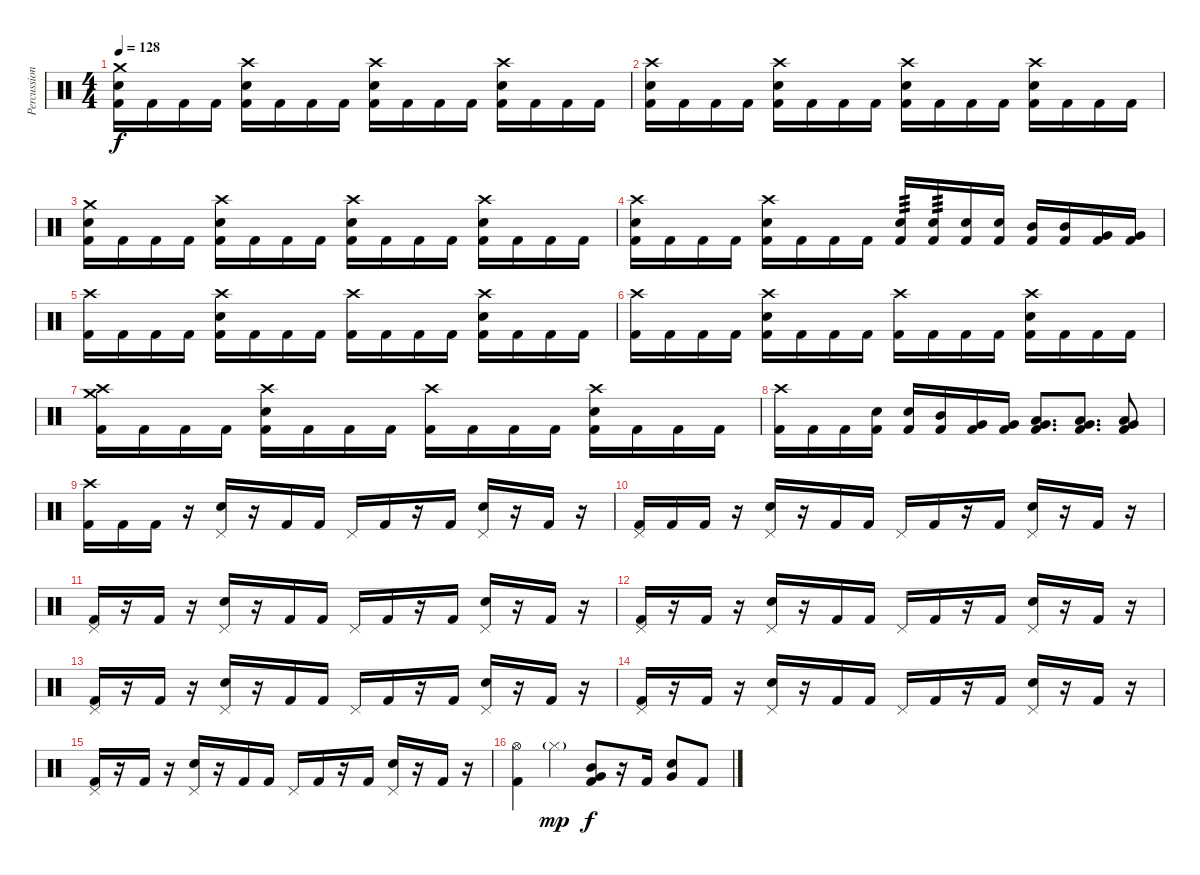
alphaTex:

\track ("Percussion" "Percussion") {instrument percussion}
\staff {score}
\articulation defaults
\ts (4 4)
\tempo 128
\clef neutral
\ks c
("Kick (hit) 2" "Electric Snare (hit)" "Crash medium (hit)").16{dy f} "Kick (hit) 2".16 "Kick (hit) 2".16 "Kick (hit) 2".16 ("Kick (hit) 2" "Electric Snare (hit)" "Crash high (hit)").16 "Kick (hit) 2".16 "Kick (hit) 2".16 "Kick (hit) 2".16 ("Kick (hit) 2" "Electric Snare (hit)" "Crash high (hit)").16 "Kick (hit) 2".16 "Kick (hit) 2".16 "Kick (hit) 2".16 ("Kick (hit) 2" "Electric Snare (hit)" "Crash high (hit)").16 "Kick (hit) 2".16 "Kick (hit) 2".16 "Kick (hit) 2".16 |
("Kick (hit) 2" "Electric Snare (hit)" "Crash high (hit)").16 "Kick (hit) 2".16 "Kick (hit) 2".16 "Kick (hit) 2".16 ("Kick (hit) 2" "Electric Snare (hit)" "Crash high (hit)").16 "Kick (hit) 2".16 "Kick (hit) 2".16 "Kick (hit) 2".16 ("Kick (hit) 2" "Electric Snare (hit)" "Crash high (hit)").16 "Kick (hit) 2".16 "Kick (hit) 2".16 "Kick (hit) 2".16 ("Kick (hit) 2" "Electric Snare (hit)" "Crash high (hit)").16 "Kick (hit) 2".16 "Kick (hit) 2".16 "Kick (hit) 2".16 |
("Kick (hit) 2" "Electric Snare (hit)" "Crash medium (hit)").16 "Kick (hit) 2".16 "Kick (hit) 2".16 "Kick (hit) 2".16 ("Kick (hit) 2" "Electric Snare (hit)" "Crash high (hit)").16 "Kick (hit) 2".16 "Kick (hit) 2".16 "Kick (hit) 2".16 ("Kick (hit) 2" "Electric Snare (hit)" "Crash high (hit)").16 "Kick (hit) 2".16 "Kick (hit) 2".16 "Kick (hit) 2".16 ("Kick (hit) 2" "Electric Snare (hit)" "Crash high (hit)").16 "Kick (hit) 2".16 "Kick (hit) 2".16 "Kick (hit) 2".16 |
("Kick (hit) 2" "Electric Snare (hit)" "Crash high (hit)").16 "Kick (hit) 2".16 "Kick (hit) 2".16 "Kick (hit) 2".16 ("Kick (hit) 2" "Electric Snare (hit)" "Crash high (hit)").16 "Kick (hit) 2".16 "Kick (hit) 2".16 "Kick (hit) 2".16 ("Kick (hit) 2" "Electric Snare (hit)").16{tp 3} ("Kick (hit) 2" "Electric Snare (hit)").16{tp 3} ("Kick (hit) 2" "Electric Snare (hit)").16 ("Kick (hit) 2" "Electric Snare (hit)").16 ("Kick (hit) 2" "Mid Tom (hit)").16 ("Kick (hit) 2" "Mid Tom (hit)").16 ("Kick (hit) 2" "Very Low Tom (hit)").16 ("Kick (hit) 2" "Very Low Tom (hit)").16 |
("Kick (hit) 2" "Crash high (hit)").16 "Kick (hit) 2".16 "Kick (hit) 2".16 "Kick (hit) 2".16 ("Kick (hit) 2" "Electric Snare (hit)" "Crash high (hit)").16 "Kick (hit) 2".16 "Kick (hit) 2".16 "Kick (hit) 2".16 ("Kick (hit) 2" "Crash high (hit)").16 "Kick (hit) 2".16 "Kick (hit) 2".16 "Kick (hit) 2".16 ("Kick (hit) 2" "Electric Snare (hit)" "Crash high (hit)").16 "Kick (hit) 2".16 "Kick (hit) 2".16 "Kick (hit) 2".16 |
("Kick (hit) 2" "Crash high (hit)").16 "Kick (hit) 2".16 "Kick (hit) 2".16 "Kick (hit) 2".16 ("Kick (hit) 2" "Electric Snare (hit)" "Crash high (hit)").16 "Kick (hit) 2".16 "Kick (hit) 2".16 "Kick (hit) 2".16 ("Kick (hit) 2" "Crash high (hit)").16 "Kick (hit) 2".16 "Kick (hit) 2".16 "Kick (hit) 2".16 ("Kick (hit) 2" "Electric Snare (hit)" "Crash high (hit)").16 "Kick (hit) 2".16 "Kick (hit) 2".16 "Kick (hit) 2".16 |
("Kick (hit) 2" "Crash medium (hit)" "Crash high (hit)").16 "Kick (hit) 2".16 "Kick (hit) 2".16 "Kick (hit) 2".16 ("Kick (hit) 2" "Electric Snare (hit)" "Crash high (hit)").16 "Kick (hit) 2".16 "Kick (hit) 2".16 "Kick (hit) 2".16 ("Kick (hit) 2" "Crash high (hit)").16 "Kick (hit) 2".16 "Kick (hit) 2".16 "Kick (hit) 2".16 ("Kick (hit) 2" "Electric Snare (hit)" "Crash high (hit)").16 "Kick (hit) 2".16 "Kick (hit) 2".16 "Kick (hit) 2".16 |
("Kick (hit) 2" "Crash high (hit)").16 "Kick (hit) 2".16 "Kick (hit) 2".16 ("Kick (hit) 2" "Electric Snare (hit)").16 ("Kick (hit) 2" "Electric Snare (hit)").16 ("Kick (hit) 2" "Mid Tom (hit)").16 ("Kick (hit) 2" "Very Low Tom (hit)").16 ("Kick (hit) 2" "Very Low Tom (hit)").16 ("Kick (hit) 2" "Low Tom (hit)" "Very Low Tom (hit)").8{d} ("Kick (hit) 2" "Low Tom (hit)" "Very Low Tom (hit)").8{d} ("Kick (hit) 2" "Low Tom (hit)" "Very Low Tom (hit)").8 |
("Kick (hit) 2" "Crash high (hit)").16 "Kick (hit) 2".16 "Kick (hit) 2".16 r.16 ("Electric Snare (hit)" "Pedal Hi-Hat (hit)").16 r.16 "Kick (hit) 2".16 "Kick (hit) 2".16 "Pedal Hi-Hat (hit)".16 "Kick (hit) 2".16 r.16 "Kick (hit) 2".16 ("Electric Snare (hit)" "Pedal Hi-Hat (hit)").16 r.16 "Kick (hit) 2".16 r.16 |
("Kick (hit) 2" "Pedal Hi-Hat (hit)").16 "Kick (hit) 2".16 "Kick (hit) 2".16 r.16 ("Electric Snare (hit)" "Pedal Hi-Hat (hit)").16 r.16 "Kick (hit) 2".16 "Kick (hit) 2".16 "Pedal Hi-Hat (hit)".16 "Kick (hit) 2".16 r.16 "Kick (hit) 2".16 ("Electric Snare (hit)" "Pedal Hi-Hat (hit)").16 r.16 "Kick (hit) 2".16 r.16 |
("Kick (hit) 2" "Pedal Hi-Hat (hit)").16 r.16 "Kick (hit) 2".16 r.16 ("Electric Snare (hit)" "Pedal Hi-Hat (hit)").16 r.16 "Kick (hit) 2".16 "Kick (hit) 2".16 "Pedal Hi-Hat (hit)".16 "Kick (hit) 2".16 r.16 "Kick (hit) 2".16 ("Electric Snare (hit)" "Pedal Hi-Hat (hit)").16 r.16 "Kick (hit) 2".16 r.16 |
("Kick (hit) 2" "Pedal Hi-Hat (hit)").16 r.16 "Kick (hit) 2".16 r.16 ("Electric Snare (hit)" "Pedal Hi-Hat (hit)").16 r.16 "Kick (hit) 2".16 "Kick (hit) 2".16 "Pedal Hi-Hat (hit)".16 "Kick (hit) 2".16 r.16 "Kick (hit) 2".16 ("Electric Snare (hit)" "Pedal Hi-Hat (hit)").16 r.16 "Kick (hit) 2".16 r.16 |
("Kick (hit) 2" "Pedal Hi-Hat (hit)").16 r.16 "Kick (hit) 2".16 r.16 ("Electric Snare (hit)" "Pedal Hi-Hat (hit)").16 r.16 "Kick (hit) 2".16 "Kick (hit) 2".16 "Pedal Hi-Hat (hit)".16 "Kick (hit) 2".16 r.16 "Kick (hit) 2".16 ("Electric Snare (hit)" "Pedal Hi-Hat (hit)").16 r.16 "Kick (hit) 2".16 r.16 |
("Kick (hit) 2" "Pedal Hi-Hat (hit)").16 r.16 "Kick (hit) 2".16 r.16 ("Electric Snare (hit)" "Pedal Hi-Hat (hit)").16 r.16 "Kick (hit) 2".16 "Kick (hit) 2".16 "Pedal Hi-Hat (hit)".16 "Kick (hit) 2".16 r.16 "Kick (hit) 2".16 ("Electric Snare (hit)" "Pedal Hi-Hat (hit)").16 r.16 "Kick (hit) 2".16 r.16 |
("Kick (hit) 2" "Pedal Hi-Hat (hit)").16 r.16 "Kick (hit) 2".16 r.16 ("Electric Snare (hit)" "Pedal Hi-Hat (hit)").16 r.16 "Kick (hit) 2".16 "Kick (hit) 2".16 "Pedal Hi-Hat (hit)".16 "Kick (hit) 2".16 r.16 "Kick (hit) 2".16 ("Electric Snare (hit)" "Pedal Hi-Hat (hit)").16 r.16 "Kick (hit) 2".16 r.16 |
("Kick (hit) 2" "Hi-Hat (open)").4 "Hi-Hat (closed)"{g}.4{dy mp} ("Kick (hit) 2" "Very Low Tom (hit)" "Mid Tom (hit)").8{dy f} r.16 "Kick (hit) 2".16 ("Very Low Tom (hit)" "Electric Snare (hit)").8 "Kick (hit) 2".8
